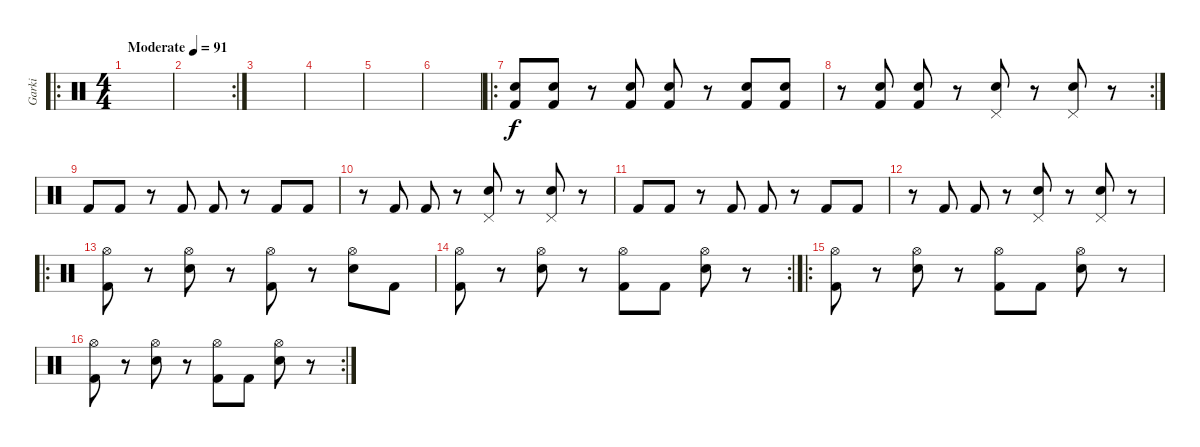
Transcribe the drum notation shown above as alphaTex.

\track ("Garki" "Garki") {instrument percussion}
\staff {score}
\articulation defaults
\ro
\ts (4 4)
\tempo (91 "Moderate")
\clef neutral
\ks c
|
\rc 2
|
|
|
|
|
\ro
("Snare (hit) 2" "Kick (hit) 2").8 ("Snare (hit) 2" "Kick (hit) 2").8 r.8 ("Snare (hit) 2" "Kick (hit) 2").8 ("Snare (hit) 2" "Kick (hit) 2").8 r.8 ("Snare (hit) 2" "Kick (hit) 2").8 ("Snare (hit) 2" "Kick (hit) 2").8 |
\rc 2
r.8 ("Snare (hit) 2" "Kick (hit) 2").8 ("Snare (hit) 2" "Kick (hit) 2").8 r.8 ("Snare (hit) 2" "Pedal Hi-Hat (hit)").8 r.8 ("Snare (hit) 2" "Pedal Hi-Hat (hit)").8 r.8 |
"Kick (hit) 2".8 "Kick (hit) 2".8 r.8 "Kick (hit) 2".8 "Kick (hit) 2".8 r.8 "Kick (hit) 2".8 "Kick (hit) 2".8 |
r.8 "Kick (hit) 2".8 "Kick (hit) 2".8 r.8 ("Snare (hit) 2" "Pedal Hi-Hat (hit)").8 r.8 ("Snare (hit) 2" "Pedal Hi-Hat (hit)").8 r.8 |
"Kick (hit) 2".8 "Kick (hit) 2".8 r.8 "Kick (hit) 2".8 "Kick (hit) 2".8 r.8 "Kick (hit) 2".8 "Kick (hit) 2".8 |
r.8 "Kick (hit) 2".8 "Kick (hit) 2".8 r.8 ("Snare (hit) 2" "Pedal Hi-Hat (hit)").8 r.8 ("Snare (hit) 2" "Pedal Hi-Hat (hit)").8 r.8 |
\ro
("Hi-Hat (open)" "Kick (hit) 2").8 r.8 ("Hi-Hat (open)" "Snare (hit) 2").8 r.8 ("Hi-Hat (open)" "Kick (hit) 2").8 r.8 ("Hi-Hat (open)" "Snare (hit) 2").8 "Kick (hit) 2".8 |
\rc 2
("Hi-Hat (open)" "Kick (hit) 2").8 r.8 ("Hi-Hat (open)" "Snare (hit) 2").8 r.8 ("Hi-Hat (open)" "Kick (hit) 2").8 "Kick (hit) 2".8 ("Hi-Hat (open)" "Snare (hit) 2").8 r.8 |
\ro
("Hi-Hat (open)" "Kick (hit) 2").8 r.8 ("Hi-Hat (open)" "Snare (hit) 2").8 r.8 ("Hi-Hat (open)" "Kick (hit) 2").8 "Kick (hit) 2".8 ("Hi-Hat (open)" "Snare (hit) 2").8 r.8 |
\rc 2
("Hi-Hat (open)" "Kick (hit) 2").8 r.8 ("Hi-Hat (open)" "Snare (hit) 2").8 r.8 ("Hi-Hat (open)" "Kick (hit) 2").8 "Kick (hit) 2".8 ("Hi-Hat (open)" "Snare (hit) 2").8 r.8
